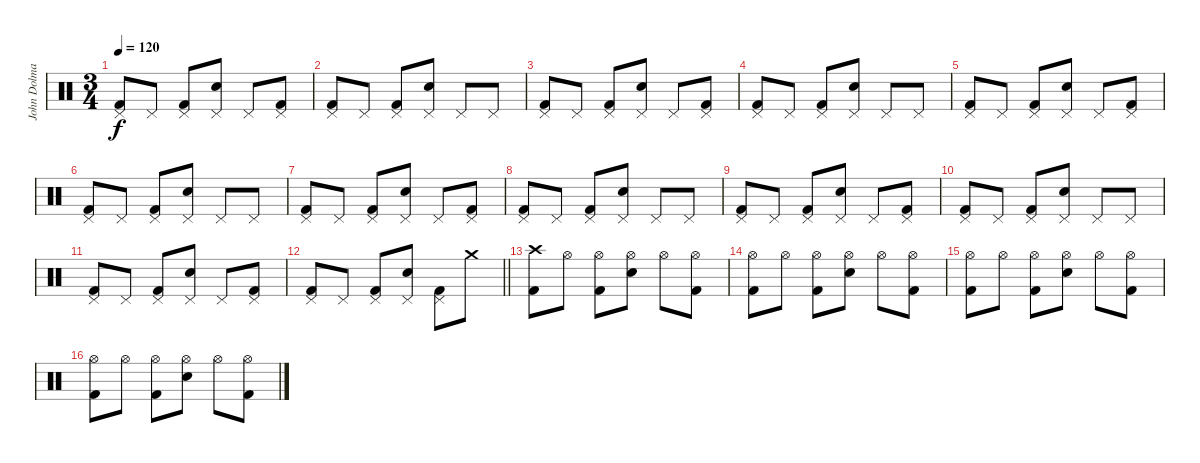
\track ("John Dolmayan" "John Dolma") {instrument percussion}
\staff {score}
\articulation defaults
\ts (3 4)
\tempo 120
\clef neutral
\ks c
("Pedal Hi-Hat (hit)" "Kick (hit) 2").8{dy f} "Pedal Hi-Hat (hit)".8 ("Pedal Hi-Hat (hit)" "Kick (hit) 2").8 ("Pedal Hi-Hat (hit)" "Electric Snare (hit)").8 "Pedal Hi-Hat (hit)".8 ("Pedal Hi-Hat (hit)" "Kick (hit) 2").8 |
("Pedal Hi-Hat (hit)" "Kick (hit) 2").8 "Pedal Hi-Hat (hit)".8 ("Pedal Hi-Hat (hit)" "Kick (hit) 2").8 ("Pedal Hi-Hat (hit)" "Electric Snare (hit)").8 "Pedal Hi-Hat (hit)".8 "Pedal Hi-Hat (hit)".8 |
("Pedal Hi-Hat (hit)" "Kick (hit) 2").8 "Pedal Hi-Hat (hit)".8 ("Pedal Hi-Hat (hit)" "Kick (hit) 2").8 ("Pedal Hi-Hat (hit)" "Electric Snare (hit)").8 "Pedal Hi-Hat (hit)".8 ("Pedal Hi-Hat (hit)" "Kick (hit) 2").8 |
("Pedal Hi-Hat (hit)" "Kick (hit) 2").8 "Pedal Hi-Hat (hit)".8 ("Pedal Hi-Hat (hit)" "Kick (hit) 2").8 ("Pedal Hi-Hat (hit)" "Electric Snare (hit)").8 "Pedal Hi-Hat (hit)".8 "Pedal Hi-Hat (hit)".8 |
("Pedal Hi-Hat (hit)" "Kick (hit) 2").8 "Pedal Hi-Hat (hit)".8 ("Pedal Hi-Hat (hit)" "Kick (hit) 2").8 ("Pedal Hi-Hat (hit)" "Electric Snare (hit)").8 "Pedal Hi-Hat (hit)".8 ("Pedal Hi-Hat (hit)" "Kick (hit) 2").8 |
("Pedal Hi-Hat (hit)" "Kick (hit) 2").8 "Pedal Hi-Hat (hit)".8 ("Pedal Hi-Hat (hit)" "Kick (hit) 2").8 ("Pedal Hi-Hat (hit)" "Electric Snare (hit)").8 "Pedal Hi-Hat (hit)".8 "Pedal Hi-Hat (hit)".8 |
("Pedal Hi-Hat (hit)" "Kick (hit) 2").8 "Pedal Hi-Hat (hit)".8 ("Pedal Hi-Hat (hit)" "Kick (hit) 2").8 ("Pedal Hi-Hat (hit)" "Electric Snare (hit)").8 "Pedal Hi-Hat (hit)".8 ("Pedal Hi-Hat (hit)" "Kick (hit) 2").8 |
("Pedal Hi-Hat (hit)" "Kick (hit) 2").8 "Pedal Hi-Hat (hit)".8 ("Pedal Hi-Hat (hit)" "Kick (hit) 2").8 ("Pedal Hi-Hat (hit)" "Electric Snare (hit)").8 "Pedal Hi-Hat (hit)".8 "Pedal Hi-Hat (hit)".8 |
("Pedal Hi-Hat (hit)" "Kick (hit) 2").8 "Pedal Hi-Hat (hit)".8 ("Pedal Hi-Hat (hit)" "Kick (hit) 2").8 ("Pedal Hi-Hat (hit)" "Electric Snare (hit)").8 "Pedal Hi-Hat (hit)".8 ("Pedal Hi-Hat (hit)" "Kick (hit) 2").8 |
("Pedal Hi-Hat (hit)" "Kick (hit) 2").8 "Pedal Hi-Hat (hit)".8 ("Pedal Hi-Hat (hit)" "Kick (hit) 2").8 ("Pedal Hi-Hat (hit)" "Electric Snare (hit)").8 "Pedal Hi-Hat (hit)".8 "Pedal Hi-Hat (hit)".8 |
("Pedal Hi-Hat (hit)" "Kick (hit) 2").8 "Pedal Hi-Hat (hit)".8 ("Pedal Hi-Hat (hit)" "Kick (hit) 2").8 ("Pedal Hi-Hat (hit)" "Electric Snare (hit)").8 "Pedal Hi-Hat (hit)".8 ("Pedal Hi-Hat (hit)" "Kick (hit) 2").8 |
\barLineRight lightlight
("Pedal Hi-Hat (hit)" "Kick (hit) 2").8 "Pedal Hi-Hat (hit)".8 ("Pedal Hi-Hat (hit)" "Kick (hit) 2").8 ("Pedal Hi-Hat (hit)" "Electric Snare (hit)").8 ("Pedal Hi-Hat (hit)" "Kick (hit) 2").8 "Crash medium (hit)".8 |
("Crash high (hit)" "Kick (hit) 2").8 "Hi-Hat (open)".8 ("Hi-Hat (open)" "Kick (hit) 2").8 ("Hi-Hat (open)" "Electric Snare (hit)").8 "Hi-Hat (open)".8 ("Hi-Hat (open)" "Kick (hit) 2").8 |
("Hi-Hat (open)" "Kick (hit) 2").8 "Hi-Hat (open)".8 ("Hi-Hat (open)" "Kick (hit) 2").8 ("Hi-Hat (open)" "Electric Snare (hit)").8 "Hi-Hat (open)".8 ("Hi-Hat (open)" "Kick (hit) 2").8 |
("Hi-Hat (open)" "Kick (hit) 2").8 "Hi-Hat (open)".8 ("Hi-Hat (open)" "Kick (hit) 2").8 ("Hi-Hat (open)" "Electric Snare (hit)").8 "Hi-Hat (open)".8 ("Hi-Hat (open)" "Kick (hit) 2").8 |
("Hi-Hat (open)" "Kick (hit) 2").8 "Hi-Hat (open)".8 ("Hi-Hat (open)" "Kick (hit) 2").8 ("Hi-Hat (open)" "Electric Snare (hit)").8 "Hi-Hat (open)".8 ("Hi-Hat (open)" "Kick (hit) 2").8
